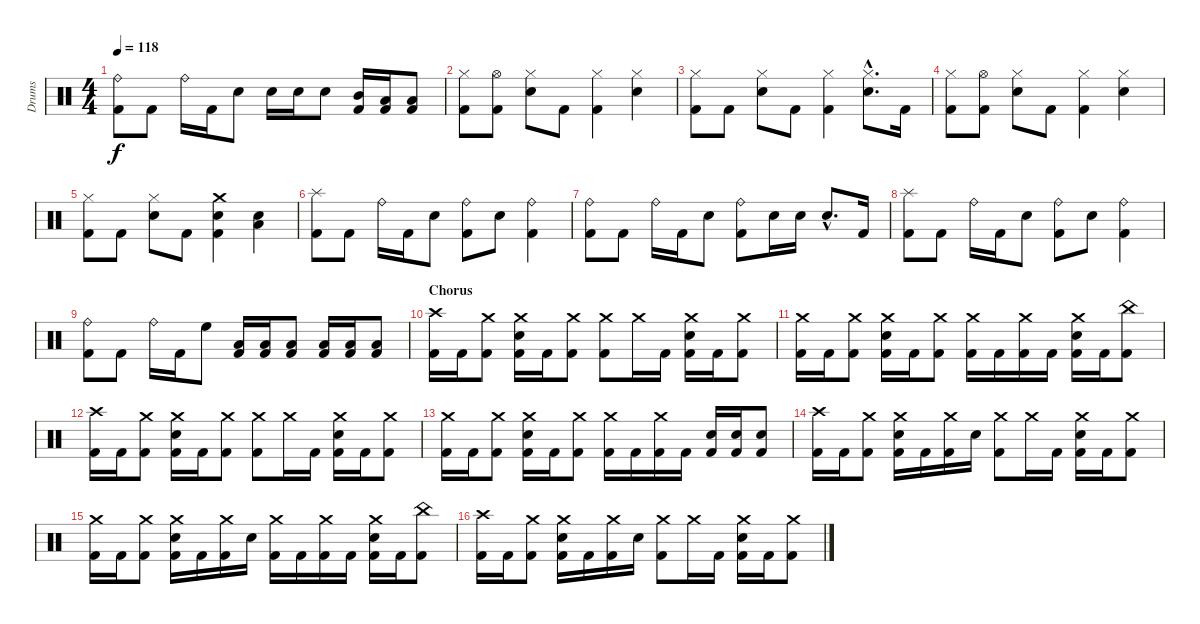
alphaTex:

\track ("Drums" "Drums") {instrument percussion}
\staff {score}
\articulation defaults
\ts (4 4)
\tempo 118
\clef neutral
\ks c
("Ride (bell)" "Kick (hit) 2").8{dy f} "Kick (hit) 2".8 "Ride (bell)".16 "Kick (hit) 2".16 "Snare (hit) 2".8 "Snare (hit) 2".16 "Snare (hit) 2".16 "Snare (hit) 2".8 ("Mid Tom (hit)" "Kick (hit) 2").16 ("Low Tom (hit)" "Kick (hit) 2").16 ("Low Floor Tom (hit)" "Kick (hit) 2").8 |
("Hi-Hat (closed)" "Kick (hit) 2").8 ("Hi-Hat (open)" "Kick (hit) 2").8 ("Hi-Hat (closed)" "Snare (hit) 2").8 "Kick (hit) 2".8 ("Hi-Hat (closed)" "Kick (hit) 2").4 ("Hi-Hat (closed)" "Snare (hit) 2").4 |
("Hi-Hat (closed)" "Kick (hit) 2").8 "Kick (hit) 2".8 ("Hi-Hat (closed)" "Snare (hit) 2").8 "Kick (hit) 2".8 ("Hi-Hat (closed)" "Kick (hit) 2").4 ("Hi-Hat (closed)"{hac} "Snare (hit) 2"{hac}).8{d} "Kick (hit) 2".16 |
("Hi-Hat (closed)" "Kick (hit) 2").8 ("Hi-Hat (open)" "Kick (hit) 2").8 ("Hi-Hat (closed)" "Snare (hit) 2").8 "Kick (hit) 2".8 ("Hi-Hat (closed)" "Kick (hit) 2").4 ("Hi-Hat (closed)" "Snare (hit) 2").4 |
("Hi-Hat (closed)" "Kick (hit) 2").8 "Kick (hit) 2".8 ("Hi-Hat (closed)" "Snare (hit) 2").8 "Kick (hit) 2".8 ("Crash medium (hit)" "Snare (hit) 2" "Kick (hit) 2").4 ("Snare (hit) 2" "Low Floor Tom (hit)").4 |
("Splash (hit)" "Kick (hit) 2").8 "Kick (hit) 2".8 "Ride (bell)".16 "Kick (hit) 2".16 "Snare (hit) 2".8 ("Ride (bell)" "Kick (hit) 2").8 "Snare (hit) 2".8 ("Ride (bell)" "Kick (hit) 2").4 |
("Ride (bell)" "Kick (hit) 2").8 "Kick (hit) 2".8 "Ride (bell)".16 "Kick (hit) 2".16 "Snare (hit) 2".8 ("Ride (bell)" "Kick (hit) 2").8 "Snare (hit) 2".16 "Snare (hit) 2".16 "Snare (hit) 2"{hac}.8{d} "Kick (hit) 2".16 |
("Splash (hit)" "Kick (hit) 2").8 "Kick (hit) 2".8 "Ride (bell)".16 "Kick (hit) 2".16 "Snare (hit) 2".8 ("Ride (bell)" "Kick (hit) 2").8 "Snare (hit) 2".8 ("Ride (bell)" "Kick (hit) 2").4 |
("Ride (bell)" "Kick (hit) 2").8 "Kick (hit) 2".8 "Ride (bell)".16 "Kick (hit) 2".16 "High Floor Tom (hit)".8 ("Low Tom (hit)" "Kick (hit) 2").16 ("Low Tom (hit)" "Kick (hit) 2").16 ("Low Tom (hit)" "Kick (hit) 2").8 ("Low Tom (hit)" "Kick (hit) 2").16 ("Low Tom (hit)" "Kick (hit) 2").16 ("Low Tom (hit)" "Kick (hit) 2").8 |
\section ("" "Chorus")
("Crash high (hit)" "Kick (hit) 2").16 "Kick (hit) 2".16 ("Crash medium (hit)" "Kick (hit) 2").8 ("Crash medium (hit)" "Snare (hit) 2" "Kick (hit) 2").16 "Kick (hit) 2".16 ("Crash medium (hit)" "Kick (hit) 2").8 ("Crash medium (hit)" "Kick (hit) 2").8 "Crash medium (hit)".16 "Kick (hit) 2".16 ("Crash medium (hit)" "Snare (hit) 2" "Kick (hit) 2").16 "Kick (hit) 2".16 ("Crash medium (hit)" "Kick (hit) 2").8 |
("Crash medium (hit)" "Kick (hit) 2").16 "Kick (hit) 2".16 ("Crash medium (hit)" "Kick (hit) 2").8 ("Crash medium (hit)" "Snare (hit) 2" "Kick (hit) 2").16 "Kick (hit) 2".16 ("Crash medium (hit)" "Kick (hit) 2").8 ("Crash medium (hit)" "Kick (hit) 2").16 "Kick (hit) 2".16 ("Crash medium (hit)" "Kick (hit) 2").16 "Kick (hit) 2".16 ("Crash medium (hit)" "Snare (hit) 2" "Kick (hit) 2").16 "Kick (hit) 2".16 ("China (hit)" "Kick (hit) 2").8 |
("Crash high (hit)" "Kick (hit) 2").16 "Kick (hit) 2".16 ("Crash medium (hit)" "Kick (hit) 2").8 ("Crash medium (hit)" "Snare (hit) 2" "Kick (hit) 2").16 "Kick (hit) 2".16 ("Crash medium (hit)" "Kick (hit) 2").8 ("Crash medium (hit)" "Kick (hit) 2").8 "Crash medium (hit)".16 "Kick (hit) 2".16 ("Crash medium (hit)" "Snare (hit) 2" "Kick (hit) 2").16 "Kick (hit) 2".16 ("Crash medium (hit)" "Kick (hit) 2").8 |
("Crash medium (hit)" "Kick (hit) 2").16 "Kick (hit) 2".16 ("Crash medium (hit)" "Kick (hit) 2").8 ("Crash medium (hit)" "Snare (hit) 2" "Kick (hit) 2").16 "Kick (hit) 2".16 ("Crash medium (hit)" "Kick (hit) 2").8 ("Crash medium (hit)" "Kick (hit) 2").16 "Kick (hit) 2".16 ("Crash medium (hit)" "Kick (hit) 2").16 "Kick (hit) 2".16 ("Snare (hit) 2" "Kick (hit) 2").16 ("Snare (hit) 2" "Kick (hit) 2").16 ("Snare (hit) 2" "Kick (hit) 2").8 |
("Crash high (hit)" "Kick (hit) 2").16 "Kick (hit) 2".16 ("Crash medium (hit)" "Kick (hit) 2").8 ("Crash medium (hit)" "Snare (hit) 2" "Kick (hit) 2").16 "Kick (hit) 2".16 ("Crash medium (hit)" "Kick (hit) 2").16 "Snare (hit) 2".16 ("Crash medium (hit)" "Kick (hit) 2").8 "Crash medium (hit)".16 "Kick (hit) 2".16 ("Crash medium (hit)" "Snare (hit) 2" "Kick (hit) 2").16 "Kick (hit) 2".16 ("Crash medium (hit)" "Kick (hit) 2").8 |
("Crash medium (hit)" "Kick (hit) 2").16 "Kick (hit) 2".16 ("Crash medium (hit)" "Kick (hit) 2").8 ("Crash medium (hit)" "Snare (hit) 2" "Kick (hit) 2").16 "Kick (hit) 2".16 ("Crash medium (hit)" "Kick (hit) 2").16 "Snare (hit) 2".16 ("Crash medium (hit)" "Kick (hit) 2").16 "Kick (hit) 2".16 ("Crash medium (hit)" "Kick (hit) 2").16 "Kick (hit) 2".16 ("Crash medium (hit)" "Snare (hit) 2" "Kick (hit) 2").16 "Kick (hit) 2".16 ("China (hit)" "Kick (hit) 2").8 |
("Crash high (hit)" "Kick (hit) 2").16 "Kick (hit) 2".16 ("Crash medium (hit)" "Kick (hit) 2").8 ("Crash medium (hit)" "Snare (hit) 2" "Kick (hit) 2").16 "Kick (hit) 2".16 ("Crash medium (hit)" "Kick (hit) 2").16 "Snare (hit) 2".16 ("Crash medium (hit)" "Kick (hit) 2").8 "Crash medium (hit)".16 "Kick (hit) 2".16 ("Crash medium (hit)" "Snare (hit) 2" "Kick (hit) 2").16 "Kick (hit) 2".16 ("Crash medium (hit)" "Kick (hit) 2").8
